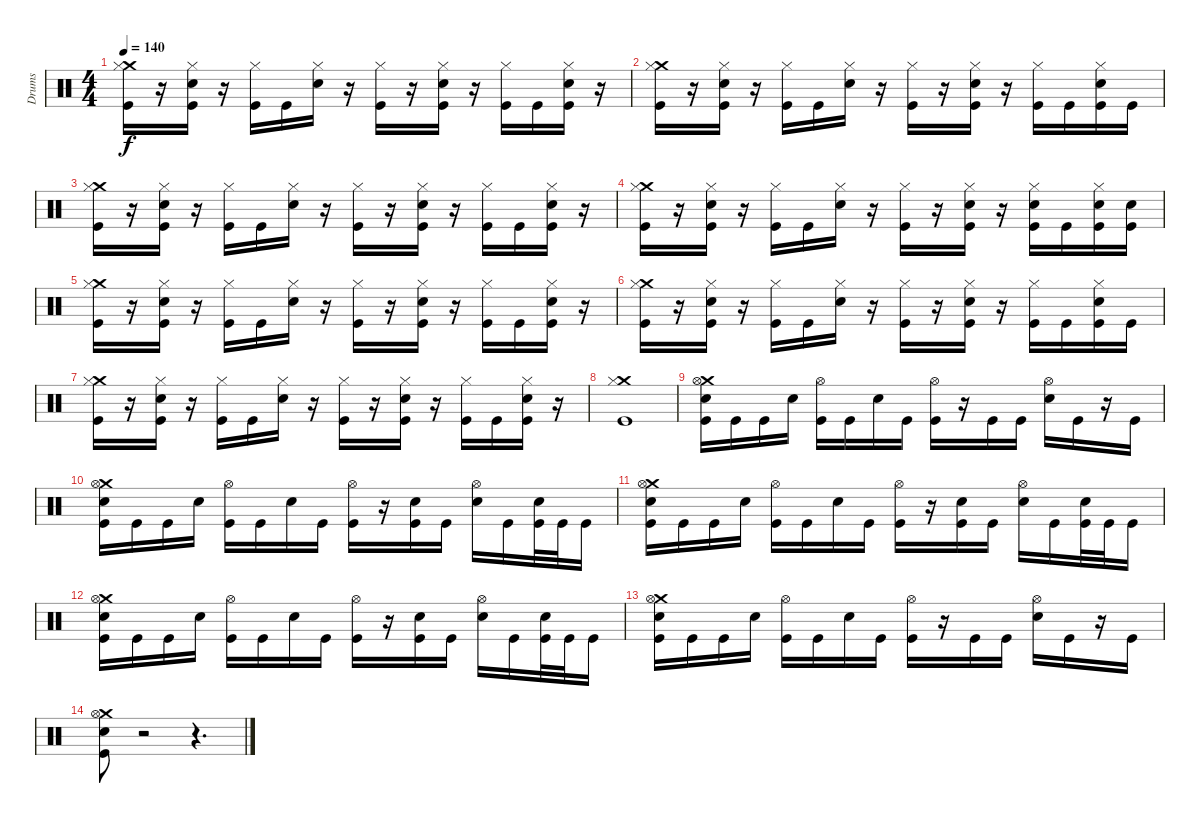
\track ("Drums" "Drums") {instrument percussion}
\staff {score}
\articulation defaults
\ts (4 4)
\tempo 140
\clef neutral
\ks c
("Crash medium (hit)" "Hi-Hat (closed)" "Kick (hit)").16{dy f} r.16 ("Hi-Hat (closed)" "Electric Snare (hit)" "Kick (hit)").16 r.16 ("Hi-Hat (closed)" "Kick (hit)").16 "Kick (hit)".16 ("Hi-Hat (closed)" "Electric Snare (hit)").16 r.16 ("Hi-Hat (closed)" "Kick (hit)").16 r.16 ("Hi-Hat (closed)" "Electric Snare (hit)" "Kick (hit)").16 r.16 ("Hi-Hat (closed)" "Kick (hit)").16 "Kick (hit)".16 ("Hi-Hat (closed)" "Electric Snare (hit)" "Kick (hit)").16 r.16 |
("Crash medium (hit)" "Hi-Hat (closed)" "Kick (hit)").16 r.16 ("Hi-Hat (closed)" "Electric Snare (hit)" "Kick (hit)").16 r.16 ("Hi-Hat (closed)" "Kick (hit)").16 "Kick (hit)".16 ("Hi-Hat (closed)" "Electric Snare (hit)").16 r.16 ("Hi-Hat (closed)" "Kick (hit)").16 r.16 ("Hi-Hat (closed)" "Electric Snare (hit)" "Kick (hit)").16 r.16 ("Hi-Hat (closed)" "Kick (hit)").16 "Kick (hit)".16 ("Hi-Hat (closed)" "Electric Snare (hit)" "Kick (hit)").16 "Kick (hit)".16 |
("Crash medium (hit)" "Hi-Hat (closed)" "Kick (hit)").16 r.16 ("Hi-Hat (closed)" "Electric Snare (hit)" "Kick (hit)").16 r.16 ("Hi-Hat (closed)" "Kick (hit)").16 "Kick (hit)".16 ("Hi-Hat (closed)" "Electric Snare (hit)").16 r.16 ("Hi-Hat (closed)" "Kick (hit)").16 r.16 ("Hi-Hat (closed)" "Electric Snare (hit)" "Kick (hit)").16 r.16 ("Hi-Hat (closed)" "Kick (hit)").16 "Kick (hit)".16 ("Hi-Hat (closed)" "Electric Snare (hit)" "Kick (hit)").16 r.16 |
("Crash medium (hit)" "Hi-Hat (closed)" "Kick (hit)").16 r.16 ("Hi-Hat (closed)" "Electric Snare (hit)" "Kick (hit)").16 r.16 ("Hi-Hat (closed)" "Kick (hit)").16 "Kick (hit)".16 ("Hi-Hat (closed)" "Electric Snare (hit)").16 r.16 ("Hi-Hat (closed)" "Kick (hit)").16 r.16 ("Hi-Hat (closed)" "Electric Snare (hit)" "Kick (hit)").16 r.16 ("Hi-Hat (closed)" "Electric Snare (hit)" "Kick (hit)").16 "Kick (hit)".16 ("Hi-Hat (closed)" "Electric Snare (hit)" "Kick (hit)").16 ("Electric Snare (hit)" "Kick (hit)").16 |
("Crash medium (hit)" "Hi-Hat (closed)" "Kick (hit)").16 r.16 ("Hi-Hat (closed)" "Electric Snare (hit)" "Kick (hit)").16 r.16 ("Hi-Hat (closed)" "Kick (hit)").16 "Kick (hit)".16 ("Hi-Hat (closed)" "Electric Snare (hit)").16 r.16 ("Hi-Hat (closed)" "Kick (hit)").16 r.16 ("Hi-Hat (closed)" "Electric Snare (hit)" "Kick (hit)").16 r.16 ("Hi-Hat (closed)" "Kick (hit)").16 "Kick (hit)".16 ("Hi-Hat (closed)" "Electric Snare (hit)" "Kick (hit)").16 r.16 |
("Crash medium (hit)" "Hi-Hat (closed)" "Kick (hit)").16 r.16 ("Hi-Hat (closed)" "Electric Snare (hit)" "Kick (hit)").16 r.16 ("Hi-Hat (closed)" "Kick (hit)").16 "Kick (hit)".16 ("Hi-Hat (closed)" "Electric Snare (hit)").16 r.16 ("Hi-Hat (closed)" "Kick (hit)").16 r.16 ("Hi-Hat (closed)" "Electric Snare (hit)" "Kick (hit)").16 r.16 ("Hi-Hat (closed)" "Kick (hit)").16 "Kick (hit)".16 ("Hi-Hat (closed)" "Electric Snare (hit)" "Kick (hit)").16 "Kick (hit)".16 |
("Crash medium (hit)" "Hi-Hat (closed)" "Kick (hit)").16 r.16 ("Hi-Hat (closed)" "Electric Snare (hit)" "Kick (hit)").16 r.16 ("Hi-Hat (closed)" "Kick (hit)").16 "Kick (hit)".16 ("Hi-Hat (closed)" "Electric Snare (hit)").16 r.16 ("Hi-Hat (closed)" "Kick (hit)").16 r.16 ("Hi-Hat (closed)" "Electric Snare (hit)" "Kick (hit)").16 r.16 ("Hi-Hat (closed)" "Kick (hit)").16 "Kick (hit)".16 ("Hi-Hat (closed)" "Electric Snare (hit)" "Kick (hit)").16 r.16 |
("Crash medium (hit)" "Hi-Hat (closed)" "Kick (hit)").1 |
("Crash medium (hit)" "Hi-Hat (open)" "Electric Snare (hit)" "Kick (hit)").16 "Kick (hit)".16 "Kick (hit)".16 "Electric Snare (hit)".16 ("Hi-Hat (open)" "Kick (hit)").16 "Kick (hit)".16 "Electric Snare (hit)".16 "Kick (hit)".16 ("Hi-Hat (open)" "Kick (hit)").16 r.16 "Kick (hit)".16 "Kick (hit)".16 ("Hi-Hat (open)" "Electric Snare (hit)").16 "Kick (hit)".16 r.16 "Kick (hit)".16 |
("Crash medium (hit)" "Hi-Hat (open)" "Electric Snare (hit)" "Kick (hit)").16 "Kick (hit)".16 "Kick (hit)".16 "Electric Snare (hit)".16 ("Hi-Hat (open)" "Kick (hit)").16 "Kick (hit)".16 "Electric Snare (hit)".16 "Kick (hit)".16 ("Hi-Hat (open)" "Kick (hit)").16 r.16 ("Electric Snare (hit)" "Kick (hit)").16 "Kick (hit)".16 ("Hi-Hat (open)" "Electric Snare (hit)").16 "Kick (hit)".16 ("Electric Snare (hit)" "Kick (hit)").32 "Kick (hit)".32 "Kick (hit)".16 |
("Crash medium (hit)" "Hi-Hat (open)" "Electric Snare (hit)" "Kick (hit)").16 "Kick (hit)".16 "Kick (hit)".16 "Electric Snare (hit)".16 ("Hi-Hat (open)" "Kick (hit)").16 "Kick (hit)".16 "Electric Snare (hit)".16 "Kick (hit)".16 ("Hi-Hat (open)" "Kick (hit)").16 r.16 ("Electric Snare (hit)" "Kick (hit)").16 "Kick (hit)".16 ("Hi-Hat (open)" "Electric Snare (hit)").16 "Kick (hit)".16 ("Electric Snare (hit)" "Kick (hit)").32 "Kick (hit)".32 "Kick (hit)".16 |
("Crash medium (hit)" "Hi-Hat (open)" "Electric Snare (hit)" "Kick (hit)").16 "Kick (hit)".16 "Kick (hit)".16 "Electric Snare (hit)".16 ("Hi-Hat (open)" "Kick (hit)").16 "Kick (hit)".16 "Electric Snare (hit)".16 "Kick (hit)".16 ("Hi-Hat (open)" "Kick (hit)").16 r.16 ("Electric Snare (hit)" "Kick (hit)").16 "Kick (hit)".16 ("Hi-Hat (open)" "Electric Snare (hit)").16 "Kick (hit)".16 ("Electric Snare (hit)" "Kick (hit)").32 "Kick (hit)".32 "Kick (hit)".16 |
("Crash medium (hit)" "Hi-Hat (open)" "Electric Snare (hit)" "Kick (hit)").16 "Kick (hit)".16 "Kick (hit)".16 "Electric Snare (hit)".16 ("Hi-Hat (open)" "Kick (hit)").16 "Kick (hit)".16 "Electric Snare (hit)".16 "Kick (hit)".16 ("Hi-Hat (open)" "Kick (hit)").16 r.16 "Kick (hit)".16 "Kick (hit)".16 ("Hi-Hat (open)" "Electric Snare (hit)").16 "Kick (hit)".16 r.16 "Kick (hit)".16 |
("Crash medium (hit)" "Hi-Hat (open)" "Electric Snare (hit)" "Kick (hit)").8 r.2 r.4{d}
